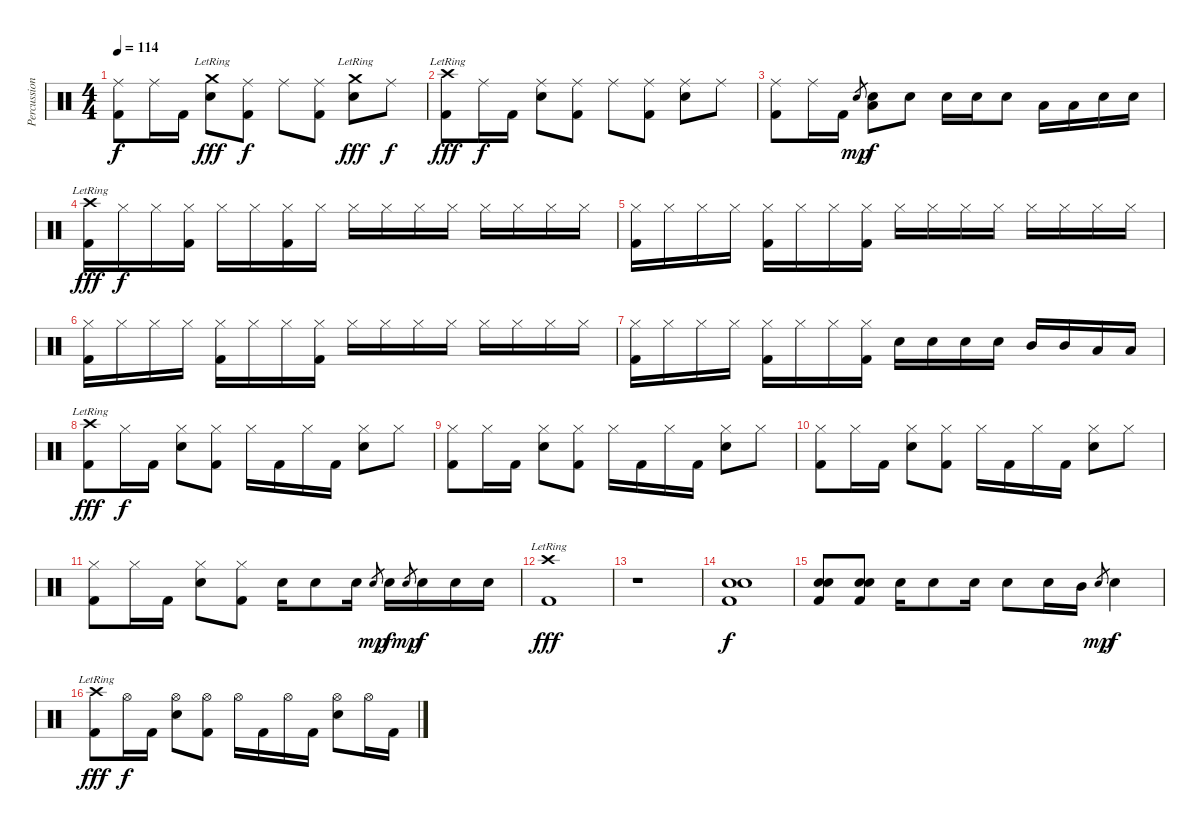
\track ("Percussion" "Percussion") {instrument percussion}
\staff {score}
\articulation defaults
\ts (4 4)
\tempo 114
\clef neutral
\ks c
("Ride (middle)" "Kick (hit) 2").8{dy f} "Ride (middle)".16 "Kick (hit) 2".16 ("Crash medium (hit)"{lr} "Snare (hit) 2").8{dy fff} ("Ride (middle)" "Kick (hit) 2").8{dy f} "Ride (middle)".8 ("Ride (middle)" "Kick (hit) 2").8 ("Crash medium (hit)"{lr} "Snare (hit) 2").8{dy fff} "Ride (middle)".8{dy f} |
("Crash high (hit)"{lr} "Kick (hit) 2").8{dy fff} "Ride (middle)".16{dy f} "Kick (hit) 2".16 ("Ride (middle)" "Snare (hit) 2").8 ("Ride (middle)" "Kick (hit) 2").8 "Ride (middle)".8 ("Ride (middle)" "Kick (hit) 2").8 ("Ride (middle)" "Snare (hit) 2").8 "Ride (middle)".8 |
("Ride (middle)" "Kick (hit) 2").8 "Ride (middle)".16 "Kick (hit) 2".16 "Snare (hit) 2".8{gr dy mp} ("Low Tom (hit)" "Snare (hit) 2").8{dy f} "Snare (hit) 2".8 "Snare (hit) 2".16 "Snare (hit) 2".16 "Snare (hit) 2".8 "Low Tom (hit)".16 "Low Tom (hit)".16 "Snare (hit) 2".16 "Snare (hit) 2".16 |
("Crash high (hit)"{lr} "Kick (hit) 2").16{dy fff} "Hi-Hat (closed)".16{dy f} "Hi-Hat (closed)".16 ("Hi-Hat (closed)" "Kick (hit) 2").16 "Hi-Hat (closed)".16 "Hi-Hat (closed)".16 ("Hi-Hat (closed)" "Kick (hit) 2").16 "Hi-Hat (closed)".16 "Hi-Hat (closed)".16 "Hi-Hat (closed)".16 "Hi-Hat (closed)".16 "Hi-Hat (closed)".16 "Hi-Hat (closed)".16 "Hi-Hat (closed)".16 "Hi-Hat (closed)".16 "Hi-Hat (closed)".16 |
("Hi-Hat (closed)" "Kick (hit) 2").16 "Hi-Hat (closed)".16 "Hi-Hat (closed)".16 "Hi-Hat (closed)".16 ("Hi-Hat (closed)" "Kick (hit) 2").16 "Hi-Hat (closed)".16 "Hi-Hat (closed)".16 ("Hi-Hat (closed)" "Kick (hit) 2").16 "Hi-Hat (closed)".16 "Hi-Hat (closed)".16 "Hi-Hat (closed)".16 "Hi-Hat (closed)".16 "Hi-Hat (closed)".16 "Hi-Hat (closed)".16 "Hi-Hat (closed)".16 "Hi-Hat (closed)".16 |
("Hi-Hat (closed)" "Kick (hit) 2").16 "Hi-Hat (closed)".16 "Hi-Hat (closed)".16 "Hi-Hat (closed)".16 ("Hi-Hat (closed)" "Kick (hit) 2").16 "Hi-Hat (closed)".16 "Hi-Hat (closed)".16 ("Hi-Hat (closed)" "Kick (hit) 2").16 "Hi-Hat (closed)".16 "Hi-Hat (closed)".16 "Hi-Hat (closed)".16 "Hi-Hat (closed)".16 "Hi-Hat (closed)".16 "Hi-Hat (closed)".16 "Hi-Hat (closed)".16 "Hi-Hat (closed)".16 |
("Hi-Hat (closed)" "Kick (hit) 2").16 "Hi-Hat (closed)".16 "Hi-Hat (closed)".16 "Hi-Hat (closed)".16 ("Hi-Hat (closed)" "Kick (hit) 2").16 "Hi-Hat (closed)".16 "Hi-Hat (closed)".16 ("Hi-Hat (closed)" "Kick (hit) 2").16 "Snare (hit) 2".16 "Snare (hit) 2".16 "Snare (hit) 2".16 "Snare (hit) 2".16 "Mid Tom (hit)".16 "Mid Tom (hit)".16 "Low Tom (hit)".16 "Low Tom (hit)".16 |
("Crash high (hit)"{lr} "Kick (hit) 2").8{dy fff} "Hi-Hat (closed)".16{dy f} "Kick (hit) 2".16 ("Hi-Hat (closed)" "Snare (hit) 2").8 ("Hi-Hat (closed)" "Kick (hit) 2").8 "Hi-Hat (closed)".16 "Kick (hit) 2".16 "Hi-Hat (closed)".16 "Kick (hit) 2".16 ("Hi-Hat (closed)" "Snare (hit) 2").8 "Hi-Hat (closed)".8 |
("Hi-Hat (closed)" "Kick (hit) 2").8 "Hi-Hat (closed)".16 "Kick (hit) 2".16 ("Hi-Hat (closed)" "Snare (hit) 2").8 ("Hi-Hat (closed)" "Kick (hit) 2").8 "Hi-Hat (closed)".16 "Kick (hit) 2".16 "Hi-Hat (closed)".16 "Kick (hit) 2".16 ("Hi-Hat (closed)" "Snare (hit) 2").8 "Hi-Hat (closed)".8 |
("Hi-Hat (closed)" "Kick (hit) 2").8 "Hi-Hat (closed)".16 "Kick (hit) 2".16 ("Hi-Hat (closed)" "Snare (hit) 2").8 ("Hi-Hat (closed)" "Kick (hit) 2").8 "Hi-Hat (closed)".16 "Kick (hit) 2".16 "Hi-Hat (closed)".16 "Kick (hit) 2".16 ("Hi-Hat (closed)" "Snare (hit) 2").8 "Hi-Hat (closed)".8 |
("Hi-Hat (closed)" "Kick (hit) 2").8 "Hi-Hat (closed)".16 "Kick (hit) 2".16 ("Hi-Hat (closed)" "Snare (hit) 2").8 ("Hi-Hat (closed)" "Kick (hit) 2").8 "Snare (hit) 2".16 "Snare (hit) 2".8 "Snare (hit) 2".16 "Snare (hit) 2".8{gr dy mp} "Snare (hit) 2".16{dy f} "Snare (hit) 2".8{gr dy mp} "Snare (hit) 2".16{dy f} "Snare (hit) 2".16 "Snare (hit) 2".16 |
("Crash high (hit)"{lr} "Kick (hit) 2").1{dy fff} |
r.1 |
("Snare (hit) 2" "Snare (hit) 2" "Kick (hit) 2").1{dy f} |
("Snare (hit) 2" "Snare (hit) 2" "Kick (hit) 2").8 ("Snare (hit) 2" "Snare (hit) 2" "Kick (hit) 2").8 "Snare (hit) 2".16 "Snare (hit) 2".8 "Snare (hit) 2".16 "Snare (hit) 2".8 "Snare (hit) 2".16 "Mid Tom (hit)".16 "Snare (hit) 2".8{gr dy mp} "Snare (hit) 2".4{dy f} |
("Crash high (hit)"{lr} "Kick (hit) 2").8{dy fff} "Hi-Hat (open)".16{dy f} "Kick (hit) 2".16 ("Hi-Hat (open)" "Snare (hit) 2").8 ("Hi-Hat (open)" "Kick (hit) 2").8 "Hi-Hat (open)".16 "Kick (hit) 2".16 "Hi-Hat (open)".16 "Kick (hit) 2".16 ("Hi-Hat (open)" "Snare (hit) 2").8 "Hi-Hat (open)".16 "Kick (hit) 2".16
